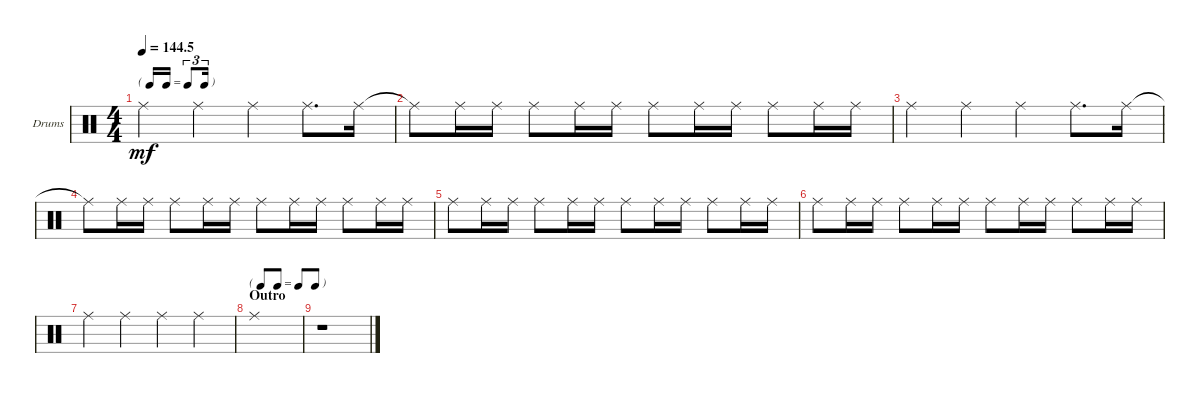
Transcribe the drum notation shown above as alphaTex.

\defaultSystemsLayout 4
\bracketExtendMode groupsimilarinstruments
\firstSystemTrackNameOrientation horizontal
\otherSystemsTrackNameOrientation horizontal
\track ("Drumkit" "Drums") {instrument percussion}
\staff {score}
\articulation defaults
\ts (4 4)
\tf triplet16th
\tempo
144.5
\accidentals auto
\clef neutral
\ottava regular
\simile none
\scale
0.5
\ks c "Ride (middle)".4{dy mf} "Ride (middle)".4 "Ride (middle)".4 "Ride (middle)".8{d} "Ride (middle)".16
|
\scale
0.5 "Ride (middle)"{t}.8 "Ride (middle)".16 "Ride (middle)".16 "Ride (middle)".8 "Ride (middle)".16 "Ride (middle)".16 "Ride (middle)".8 "Ride (middle)".16 "Ride (middle)".16 "Ride (middle)".8 "Ride (middle)".16 "Ride (middle)".16 |
\scale
0.5 "Ride (middle)".4 "Ride (middle)".4 "Ride (middle)".4 "Ride (middle)".8{d} "Ride (middle)".16 |
\scale
0.5 "Ride (middle)"{t}.8 "Ride (middle)".16 "Ride (middle)".16 "Ride (middle)".8 "Ride (middle)".16 "Ride (middle)".16 "Ride (middle)".8 "Ride (middle)".16 "Ride (middle)".16 "Ride (middle)".8 "Ride (middle)".16 "Ride (middle)".16 |
\scale
0.5 "Ride (middle)".8 "Ride (middle)".16 "Ride (middle)".16 "Ride (middle)".8 "Ride (middle)".16 "Ride (middle)".16 "Ride (middle)".8 "Ride (middle)".16 "Ride (middle)".16 "Ride (middle)".8 "Ride (middle)".16 "Ride (middle)".16 |
\scale
0.5 "Ride (middle)".8 "Ride (middle)".16 "Ride (middle)".16 "Ride (middle)".8 "Ride (middle)".16 "Ride (middle)".16 "Ride (middle)".8 "Ride (middle)".16 "Ride (middle)".16 "Ride (middle)".8 "Ride (middle)".16 "Ride (middle)".16 |
\scale
0.5 "Ride (middle)".4 "Ride (middle)".4 "Ride (middle)".4 "Ride (middle)".4 |
\tf none
\section ("" "Outro")
\scale
0.5 "Ride (middle)".1 |
r.1
